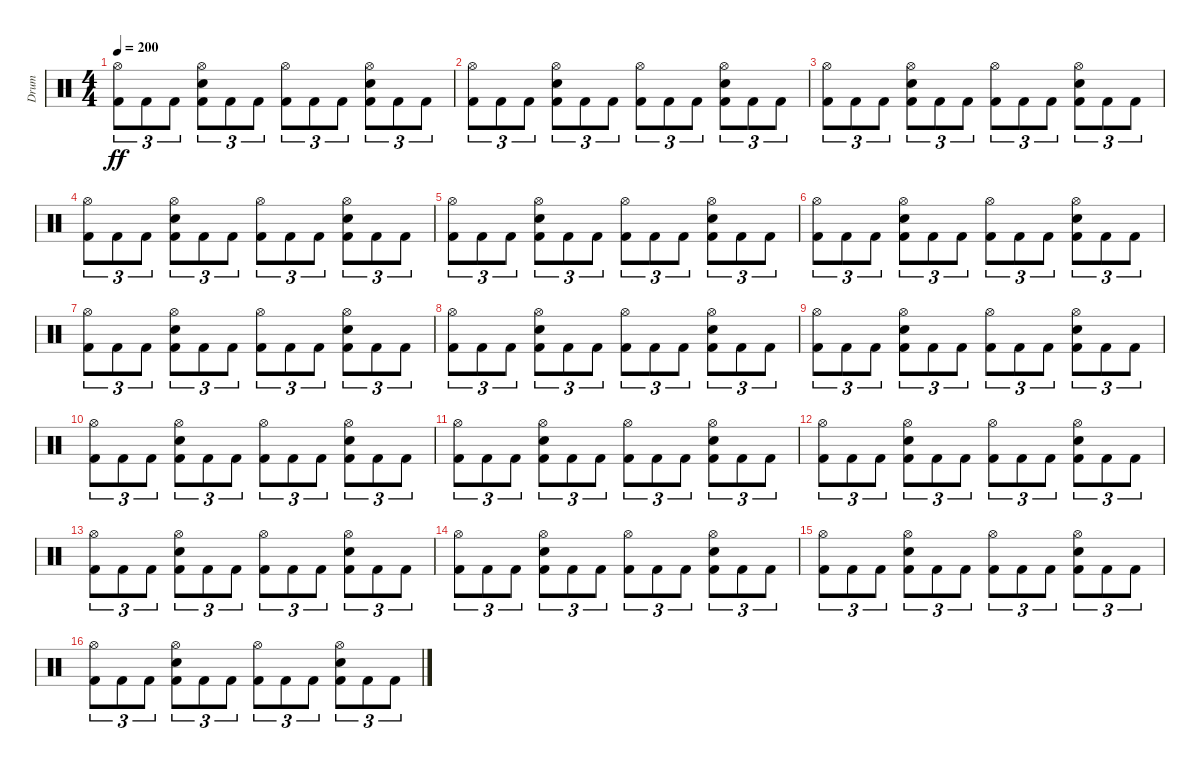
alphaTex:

\track ("Drum" "Drum") {instrument percussion}
\staff {score}
\articulation defaults
\ts (4 4)
\tempo 200
\clef neutral
\ks c
("Hi-Hat (open)" "Kick (hit) 2").8{tu (3 2) dy ff} "Kick (hit) 2".8{tu (3 2)} "Kick (hit) 2".8{tu (3 2)} ("Hi-Hat (open)" "Snare (hit) 2" "Kick (hit) 2").8{tu (3 2)} "Kick (hit) 2".8{tu (3 2)} "Kick (hit) 2".8{tu (3 2)} ("Hi-Hat (open)" "Kick (hit) 2").8{tu (3 2)} "Kick (hit) 2".8{tu (3 2)} "Kick (hit) 2".8{tu (3 2)} ("Hi-Hat (open)" "Snare (hit) 2" "Kick (hit) 2").8{tu (3 2)} "Kick (hit) 2".8{tu (3 2)} "Kick (hit) 2".8{tu (3 2)} |
("Hi-Hat (open)" "Kick (hit) 2").8{tu (3 2)} "Kick (hit) 2".8{tu (3 2)} "Kick (hit) 2".8{tu (3 2)} ("Hi-Hat (open)" "Snare (hit) 2" "Kick (hit) 2").8{tu (3 2)} "Kick (hit) 2".8{tu (3 2)} "Kick (hit) 2".8{tu (3 2)} ("Hi-Hat (open)" "Kick (hit) 2").8{tu (3 2)} "Kick (hit) 2".8{tu (3 2)} "Kick (hit) 2".8{tu (3 2)} ("Hi-Hat (open)" "Snare (hit) 2" "Kick (hit) 2").8{tu (3 2)} "Kick (hit) 2".8{tu (3 2)} "Kick (hit) 2".8{tu (3 2)} |
("Hi-Hat (open)" "Kick (hit) 2").8{tu (3 2)} "Kick (hit) 2".8{tu (3 2)} "Kick (hit) 2".8{tu (3 2)} ("Hi-Hat (open)" "Snare (hit) 2" "Kick (hit) 2").8{tu (3 2)} "Kick (hit) 2".8{tu (3 2)} "Kick (hit) 2".8{tu (3 2)} ("Hi-Hat (open)" "Kick (hit) 2").8{tu (3 2)} "Kick (hit) 2".8{tu (3 2)} "Kick (hit) 2".8{tu (3 2)} ("Hi-Hat (open)" "Snare (hit) 2" "Kick (hit) 2").8{tu (3 2)} "Kick (hit) 2".8{tu (3 2)} "Kick (hit) 2".8{tu (3 2)} |
("Hi-Hat (open)" "Kick (hit) 2").8{tu (3 2)} "Kick (hit) 2".8{tu (3 2)} "Kick (hit) 2".8{tu (3 2)} ("Hi-Hat (open)" "Snare (hit) 2" "Kick (hit) 2").8{tu (3 2)} "Kick (hit) 2".8{tu (3 2)} "Kick (hit) 2".8{tu (3 2)} ("Hi-Hat (open)" "Kick (hit) 2").8{tu (3 2)} "Kick (hit) 2".8{tu (3 2)} "Kick (hit) 2".8{tu (3 2)} ("Hi-Hat (open)" "Snare (hit) 2" "Kick (hit) 2").8{tu (3 2)} "Kick (hit) 2".8{tu (3 2)} "Kick (hit) 2".8{tu (3 2)} |
("Hi-Hat (open)" "Kick (hit) 2").8{tu (3 2)} "Kick (hit) 2".8{tu (3 2)} "Kick (hit) 2".8{tu (3 2)} ("Hi-Hat (open)" "Snare (hit) 2" "Kick (hit) 2").8{tu (3 2)} "Kick (hit) 2".8{tu (3 2)} "Kick (hit) 2".8{tu (3 2)} ("Hi-Hat (open)" "Kick (hit) 2").8{tu (3 2)} "Kick (hit) 2".8{tu (3 2)} "Kick (hit) 2".8{tu (3 2)} ("Hi-Hat (open)" "Snare (hit) 2" "Kick (hit) 2").8{tu (3 2)} "Kick (hit) 2".8{tu (3 2)} "Kick (hit) 2".8{tu (3 2)} |
("Hi-Hat (open)" "Kick (hit) 2").8{tu (3 2)} "Kick (hit) 2".8{tu (3 2)} "Kick (hit) 2".8{tu (3 2)} ("Hi-Hat (open)" "Snare (hit) 2" "Kick (hit) 2").8{tu (3 2)} "Kick (hit) 2".8{tu (3 2)} "Kick (hit) 2".8{tu (3 2)} ("Hi-Hat (open)" "Kick (hit) 2").8{tu (3 2)} "Kick (hit) 2".8{tu (3 2)} "Kick (hit) 2".8{tu (3 2)} ("Hi-Hat (open)" "Snare (hit) 2" "Kick (hit) 2").8{tu (3 2)} "Kick (hit) 2".8{tu (3 2)} "Kick (hit) 2".8{tu (3 2)} |
("Hi-Hat (open)" "Kick (hit) 2").8{tu (3 2)} "Kick (hit) 2".8{tu (3 2)} "Kick (hit) 2".8{tu (3 2)} ("Hi-Hat (open)" "Snare (hit) 2" "Kick (hit) 2").8{tu (3 2)} "Kick (hit) 2".8{tu (3 2)} "Kick (hit) 2".8{tu (3 2)} ("Hi-Hat (open)" "Kick (hit) 2").8{tu (3 2)} "Kick (hit) 2".8{tu (3 2)} "Kick (hit) 2".8{tu (3 2)} ("Hi-Hat (open)" "Snare (hit) 2" "Kick (hit) 2").8{tu (3 2)} "Kick (hit) 2".8{tu (3 2)} "Kick (hit) 2".8{tu (3 2)} |
("Hi-Hat (open)" "Kick (hit) 2").8{tu (3 2)} "Kick (hit) 2".8{tu (3 2)} "Kick (hit) 2".8{tu (3 2)} ("Hi-Hat (open)" "Snare (hit) 2" "Kick (hit) 2").8{tu (3 2)} "Kick (hit) 2".8{tu (3 2)} "Kick (hit) 2".8{tu (3 2)} ("Hi-Hat (open)" "Kick (hit) 2").8{tu (3 2)} "Kick (hit) 2".8{tu (3 2)} "Kick (hit) 2".8{tu (3 2)} ("Hi-Hat (open)" "Snare (hit) 2" "Kick (hit) 2").8{tu (3 2)} "Kick (hit) 2".8{tu (3 2)} "Kick (hit) 2".8{tu (3 2)} |
("Hi-Hat (open)" "Kick (hit) 2").8{tu (3 2)} "Kick (hit) 2".8{tu (3 2)} "Kick (hit) 2".8{tu (3 2)} ("Hi-Hat (open)" "Snare (hit) 2" "Kick (hit) 2").8{tu (3 2)} "Kick (hit) 2".8{tu (3 2)} "Kick (hit) 2".8{tu (3 2)} ("Hi-Hat (open)" "Kick (hit) 2").8{tu (3 2)} "Kick (hit) 2".8{tu (3 2)} "Kick (hit) 2".8{tu (3 2)} ("Hi-Hat (open)" "Snare (hit) 2" "Kick (hit) 2").8{tu (3 2)} "Kick (hit) 2".8{tu (3 2)} "Kick (hit) 2".8{tu (3 2)} |
("Hi-Hat (open)" "Kick (hit) 2").8{tu (3 2)} "Kick (hit) 2".8{tu (3 2)} "Kick (hit) 2".8{tu (3 2)} ("Hi-Hat (open)" "Snare (hit) 2" "Kick (hit) 2").8{tu (3 2)} "Kick (hit) 2".8{tu (3 2)} "Kick (hit) 2".8{tu (3 2)} ("Hi-Hat (open)" "Kick (hit) 2").8{tu (3 2)} "Kick (hit) 2".8{tu (3 2)} "Kick (hit) 2".8{tu (3 2)} ("Hi-Hat (open)" "Snare (hit) 2" "Kick (hit) 2").8{tu (3 2)} "Kick (hit) 2".8{tu (3 2)} "Kick (hit) 2".8{tu (3 2)} |
("Hi-Hat (open)" "Kick (hit) 2").8{tu (3 2)} "Kick (hit) 2".8{tu (3 2)} "Kick (hit) 2".8{tu (3 2)} ("Hi-Hat (open)" "Snare (hit) 2" "Kick (hit) 2").8{tu (3 2)} "Kick (hit) 2".8{tu (3 2)} "Kick (hit) 2".8{tu (3 2)} ("Hi-Hat (open)" "Kick (hit) 2").8{tu (3 2)} "Kick (hit) 2".8{tu (3 2)} "Kick (hit) 2".8{tu (3 2)} ("Hi-Hat (open)" "Snare (hit) 2" "Kick (hit) 2").8{tu (3 2)} "Kick (hit) 2".8{tu (3 2)} "Kick (hit) 2".8{tu (3 2)} |
("Hi-Hat (open)" "Kick (hit) 2").8{tu (3 2)} "Kick (hit) 2".8{tu (3 2)} "Kick (hit) 2".8{tu (3 2)} ("Hi-Hat (open)" "Snare (hit) 2" "Kick (hit) 2").8{tu (3 2)} "Kick (hit) 2".8{tu (3 2)} "Kick (hit) 2".8{tu (3 2)} ("Hi-Hat (open)" "Kick (hit) 2").8{tu (3 2)} "Kick (hit) 2".8{tu (3 2)} "Kick (hit) 2".8{tu (3 2)} ("Hi-Hat (open)" "Snare (hit) 2" "Kick (hit) 2").8{tu (3 2)} "Kick (hit) 2".8{tu (3 2)} "Kick (hit) 2".8{tu (3 2)} |
("Hi-Hat (open)" "Kick (hit) 2").8{tu (3 2)} "Kick (hit) 2".8{tu (3 2)} "Kick (hit) 2".8{tu (3 2)} ("Hi-Hat (open)" "Snare (hit) 2" "Kick (hit) 2").8{tu (3 2)} "Kick (hit) 2".8{tu (3 2)} "Kick (hit) 2".8{tu (3 2)} ("Hi-Hat (open)" "Kick (hit) 2").8{tu (3 2)} "Kick (hit) 2".8{tu (3 2)} "Kick (hit) 2".8{tu (3 2)} ("Hi-Hat (open)" "Snare (hit) 2" "Kick (hit) 2").8{tu (3 2)} "Kick (hit) 2".8{tu (3 2)} "Kick (hit) 2".8{tu (3 2)} |
("Hi-Hat (open)" "Kick (hit) 2").8{tu (3 2)} "Kick (hit) 2".8{tu (3 2)} "Kick (hit) 2".8{tu (3 2)} ("Hi-Hat (open)" "Snare (hit) 2" "Kick (hit) 2").8{tu (3 2)} "Kick (hit) 2".8{tu (3 2)} "Kick (hit) 2".8{tu (3 2)} ("Hi-Hat (open)" "Kick (hit) 2").8{tu (3 2)} "Kick (hit) 2".8{tu (3 2)} "Kick (hit) 2".8{tu (3 2)} ("Hi-Hat (open)" "Snare (hit) 2" "Kick (hit) 2").8{tu (3 2)} "Kick (hit) 2".8{tu (3 2)} "Kick (hit) 2".8{tu (3 2)} |
("Hi-Hat (open)" "Kick (hit) 2").8{tu (3 2)} "Kick (hit) 2".8{tu (3 2)} "Kick (hit) 2".8{tu (3 2)} ("Hi-Hat (open)" "Snare (hit) 2" "Kick (hit) 2").8{tu (3 2)} "Kick (hit) 2".8{tu (3 2)} "Kick (hit) 2".8{tu (3 2)} ("Hi-Hat (open)" "Kick (hit) 2").8{tu (3 2)} "Kick (hit) 2".8{tu (3 2)} "Kick (hit) 2".8{tu (3 2)} ("Hi-Hat (open)" "Snare (hit) 2" "Kick (hit) 2").8{tu (3 2)} "Kick (hit) 2".8{tu (3 2)} "Kick (hit) 2".8{tu (3 2)} |
("Hi-Hat (open)" "Kick (hit) 2").8{tu (3 2)} "Kick (hit) 2".8{tu (3 2)} "Kick (hit) 2".8{tu (3 2)} ("Hi-Hat (open)" "Snare (hit) 2" "Kick (hit) 2").8{tu (3 2)} "Kick (hit) 2".8{tu (3 2)} "Kick (hit) 2".8{tu (3 2)} ("Hi-Hat (open)" "Kick (hit) 2").8{tu (3 2)} "Kick (hit) 2".8{tu (3 2)} "Kick (hit) 2".8{tu (3 2)} ("Hi-Hat (open)" "Snare (hit) 2" "Kick (hit) 2").8{tu (3 2)} "Kick (hit) 2".8{tu (3 2)} "Kick (hit) 2".8{tu (3 2)}
